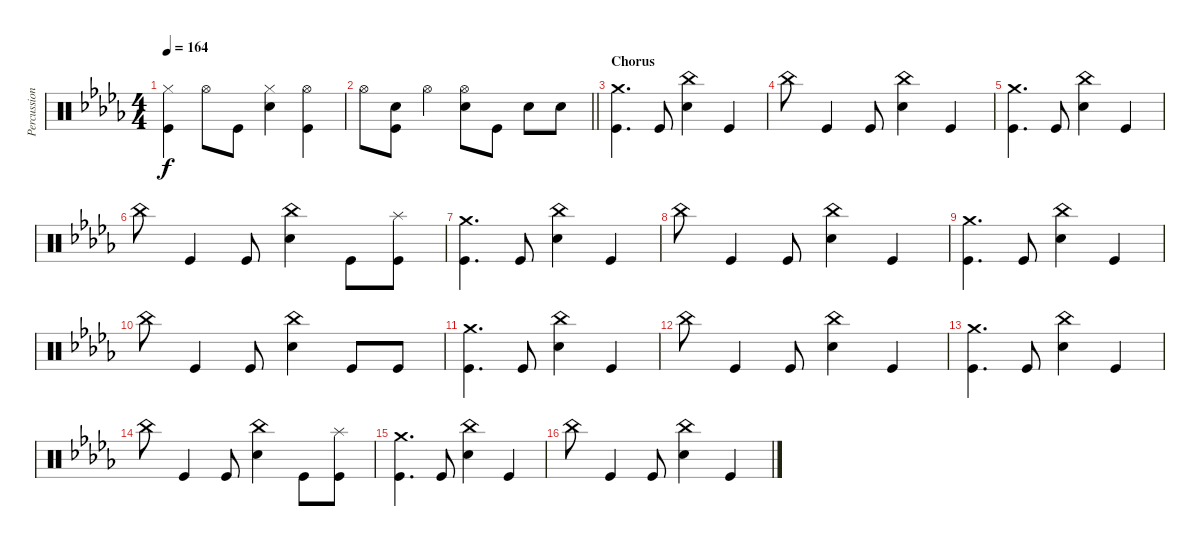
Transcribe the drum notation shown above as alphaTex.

\track ("Percussion" "Percussion") {instrument percussion}
\staff {score}
\articulation defaults
\ts (4 4)
\tempo 164
\clef neutral
\ks db
("Hi-Hat (closed)" "Kick (hit)").4{dy f} "Hi-Hat (open)".8 "Kick (hit)".8 ("Hi-Hat (closed)" "Electric Snare (hit)").4 ("Hi-Hat (open)" "Kick (hit)").4 |
\barLineRight lightlight "Hi-Hat (open)".8
("Electric Snare (hit)" "Kick (hit)").8 "Hi-Hat (open)".4 ("Hi-Hat (open)" "Electric Snare (hit)").8 "Kick (hit)".8 "Electric Snare (hit)".8 "Electric Snare (hit)".8 |
\section ("" "Chorus")
("Crash medium (hit)" "Kick (hit)").4{d} "Kick (hit)".8 ("China (hit)" "Electric Snare (hit)").4 "Kick (hit)".4 |
"China (hit)".8 "Kick (hit)".4 "Kick (hit)".8 ("China (hit)" "Electric Snare (hit)").4 "Kick (hit)".4 |
("Crash medium (hit)" "Kick (hit)").4{d} "Kick (hit)".8 ("China (hit)" "Electric Snare (hit)").4 "Kick (hit)".4 |
"China (hit)".8 "Kick (hit)".4 "Kick (hit)".8 ("China (hit)" "Electric Snare (hit)").4 "Kick (hit)".8 ("Splash (hit)" "Kick (hit)").8 |
("Crash medium (hit)" "Kick (hit)").4{d} "Kick (hit)".8 ("China (hit)" "Electric Snare (hit)").4 "Kick (hit)".4 |
"China (hit)".8 "Kick (hit)".4 "Kick (hit)".8 ("China (hit)" "Electric Snare (hit)").4 "Kick (hit)".4 |
("Crash medium (hit)" "Kick (hit)").4{d} "Kick (hit)".8 ("China (hit)" "Electric Snare (hit)").4 "Kick (hit)".4 |
"China (hit)".8 "Kick (hit)".4 "Kick (hit)".8 ("China (hit)" "Electric Snare (hit)").4 "Kick (hit)".8 "Kick (hit)".8 |
("Crash medium (hit)" "Kick (hit)").4{d} "Kick (hit)".8 ("China (hit)" "Electric Snare (hit)").4 "Kick (hit)".4 |
"China (hit)".8 "Kick (hit)".4 "Kick (hit)".8 ("China (hit)" "Electric Snare (hit)").4 "Kick (hit)".4 |
("Crash medium (hit)" "Kick (hit)").4{d} "Kick (hit)".8 ("China (hit)" "Electric Snare (hit)").4 "Kick (hit)".4 |
"China (hit)".8 "Kick (hit)".4 "Kick (hit)".8 ("China (hit)" "Electric Snare (hit)").4 "Kick (hit)".8 ("Splash (hit)" "Kick (hit)").8 |
("Crash medium (hit)" "Kick (hit)").4{d} "Kick (hit)".8 ("China (hit)" "Electric Snare (hit)").4 "Kick (hit)".4 |
"China (hit)".8 "Kick (hit)".4 "Kick (hit)".8 ("China (hit)" "Electric Snare (hit)").4 "Kick (hit)".4
